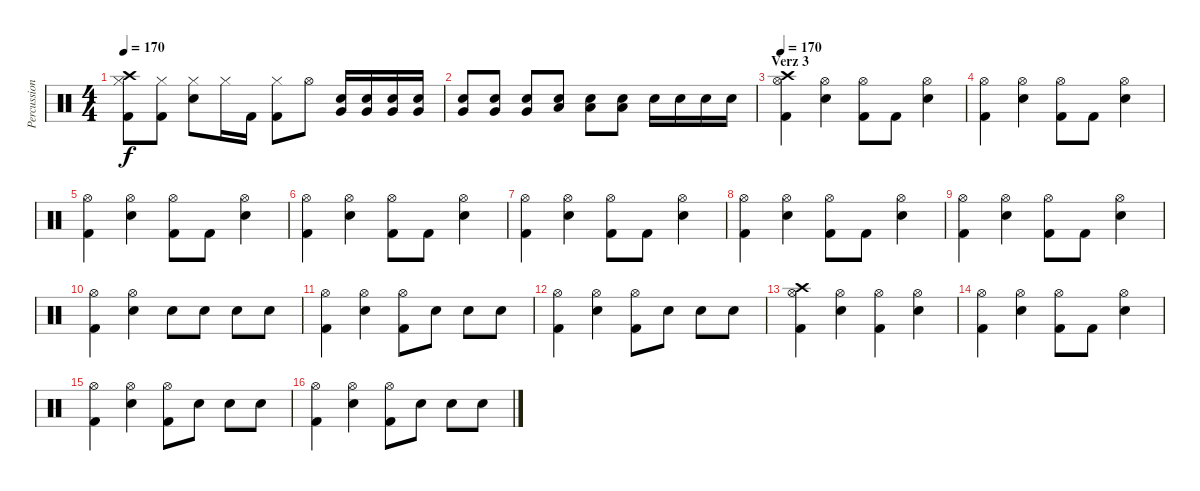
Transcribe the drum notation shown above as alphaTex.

\track ("Percussion - Who the fuck knows" "Percussion") {instrument percussion}
\staff {score}
\articulation defaults
\ts (4 4)
\tempo 170
\clef neutral
\ks c
("Hi-Hat (closed)" "Kick (hit) 2" "Crash high (hit)").8{dy f} ("Hi-Hat (closed)" "Kick (hit) 2").8 ("Hi-Hat (closed)" "Snare (hit) 2").8 "Hi-Hat (closed)".16 "Kick (hit) 2".16 ("Hi-Hat (closed)" "Kick (hit) 2").8 "Hi-Hat (open)".8 ("Snare (hit) 2" "Very Low Tom (hit)").16 ("Very Low Tom (hit)" "Snare (hit) 2").16 ("Very Low Tom (hit)" "Snare (hit) 2").16 ("Very Low Tom (hit)" "Snare (hit) 2").16 |
("Very Low Tom (hit)" "Snare (hit) 2").8 ("Very Low Tom (hit)" "Snare (hit) 2").8 ("Very Low Tom (hit)" "Snare (hit) 2").8 ("Low Floor Tom (hit)" "Snare (hit) 2").8 ("Low Floor Tom (hit)" "Snare (hit) 2").8 ("Low Floor Tom (hit)" "Snare (hit) 2").8 "Snare (hit) 2".16 "Snare (hit) 2".16 "Snare (hit) 2".16 "Snare (hit) 2".16 |
\section ("" "Verz 3")
\tempo 170
("Crash high (hit)" "Kick (hit) 2" "Hi-Hat (open)").4 ("Hi-Hat (open)" "Snare (hit) 2").4 ("Hi-Hat (open)" "Kick (hit) 2").8 "Kick (hit) 2".8 ("Hi-Hat (open)" "Snare (hit) 2").4 |
("Hi-Hat (open)" "Kick (hit) 2").4 ("Hi-Hat (open)" "Snare (hit) 2").4 ("Hi-Hat (open)" "Kick (hit) 2").8 "Kick (hit) 2".8 ("Hi-Hat (open)" "Snare (hit) 2").4 |
("Hi-Hat (open)" "Kick (hit) 2").4 ("Hi-Hat (open)" "Snare (hit) 2").4 ("Hi-Hat (open)" "Kick (hit) 2").8 "Kick (hit) 2".8 ("Hi-Hat (open)" "Snare (hit) 2").4 |
("Hi-Hat (open)" "Kick (hit) 2").4 ("Hi-Hat (open)" "Snare (hit) 2").4 ("Hi-Hat (open)" "Kick (hit) 2").8 "Kick (hit) 2".8 ("Hi-Hat (open)" "Snare (hit) 2").4 |
("Kick (hit) 2" "Hi-Hat (open)").4 ("Hi-Hat (open)" "Snare (hit) 2").4 ("Hi-Hat (open)" "Kick (hit) 2").8 "Kick (hit) 2".8 ("Hi-Hat (open)" "Snare (hit) 2").4 |
("Hi-Hat (open)" "Kick (hit) 2").4 ("Hi-Hat (open)" "Snare (hit) 2").4 ("Hi-Hat (open)" "Kick (hit) 2").8 "Kick (hit) 2".8 ("Hi-Hat (open)" "Snare (hit) 2").4 |
("Hi-Hat (open)" "Kick (hit) 2").4 ("Hi-Hat (open)" "Snare (hit) 2").4 ("Hi-Hat (open)" "Kick (hit) 2").8 "Kick (hit) 2".8 ("Hi-Hat (open)" "Snare (hit) 2").4 |
("Hi-Hat (open)" "Kick (hit) 2").4 ("Hi-Hat (open)" "Snare (hit) 2").4 "Snare (hit) 2".8 "Snare (hit) 2".8 "Snare (hit) 2".8 "Snare (hit) 2".8 |
("Hi-Hat (open)" "Kick (hit) 2").4 ("Hi-Hat (open)" "Snare (hit) 2").4 ("Hi-Hat (open)" "Kick (hit) 2").8 "Snare (hit) 2".8 "Snare (hit) 2".8 "Snare (hit) 2".8 |
("Hi-Hat (open)" "Kick (hit) 2").4 ("Hi-Hat (open)" "Snare (hit) 2").4 ("Hi-Hat (open)" "Kick (hit) 2").8 "Snare (hit) 2".8 "Snare (hit) 2".8 "Snare (hit) 2".8 |
("Hi-Hat (open)" "Kick (hit) 2" "Crash high (hit)").4 ("Hi-Hat (open)" "Snare (hit) 2").4 ("Hi-Hat (open)" "Kick (hit) 2").4 ("Hi-Hat (open)" "Snare (hit) 2").4 |
("Hi-Hat (open)" "Kick (hit) 2").4 ("Hi-Hat (open)" "Snare (hit) 2").4 ("Hi-Hat (open)" "Kick (hit) 2").8 "Kick (hit) 2".8 ("Hi-Hat (open)" "Snare (hit) 2").4 |
("Hi-Hat (open)" "Kick (hit) 2").4 ("Hi-Hat (open)" "Snare (hit) 2").4 ("Hi-Hat (open)" "Kick (hit) 2").8 "Snare (hit) 2".8 "Snare (hit) 2".8 "Snare (hit) 2".8 |
("Hi-Hat (open)" "Kick (hit) 2").4 ("Hi-Hat (open)" "Snare (hit) 2").4 ("Hi-Hat (open)" "Kick (hit) 2").8 "Snare (hit) 2".8 "Snare (hit) 2".8 "Snare (hit) 2".8
